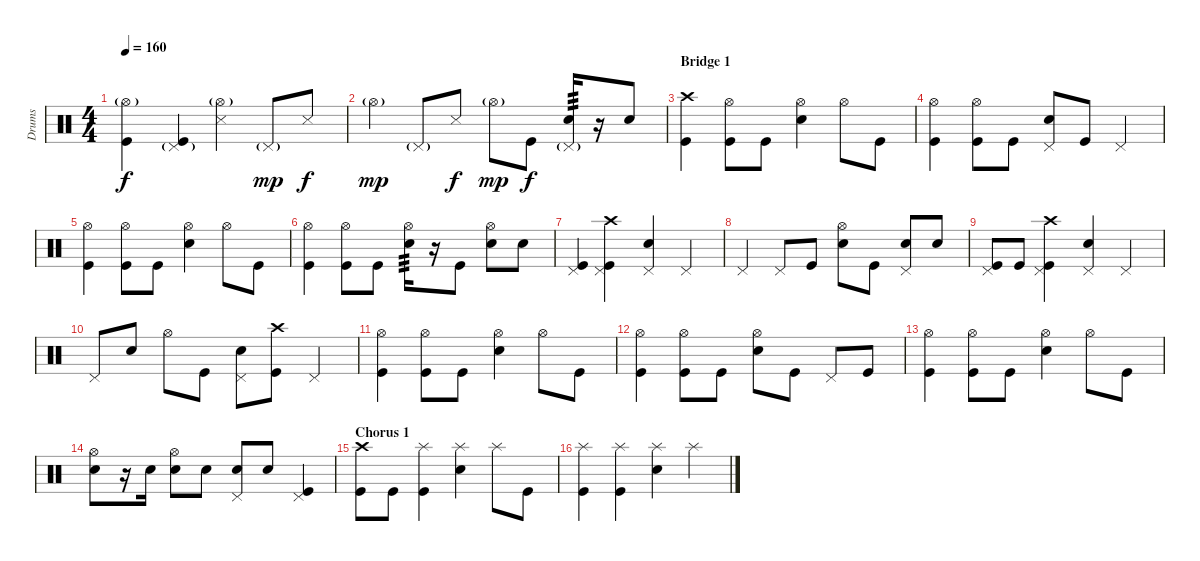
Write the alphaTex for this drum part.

\track ("Drums" "Drums") {instrument percussion}
\staff {score}
\articulation defaults
\ts (4 4)
\tempo 160
\clef neutral
\ks c
("Hi-Hat (open)"{g} "Kick (hit)").4{dy f} ("Pedal Hi-Hat (hit)"{g} "Kick (hit)").4 ("Hi-Hat (open)"{g} "Snare (side stick) 3").4 "Pedal Hi-Hat (hit)"{g}.8{dy mp} "Snare (side stick) 3".8{dy f} |
"Hi-Hat (open)"{g}.4{dy mp} "Pedal Hi-Hat (hit)"{g}.8 "Snare (side stick) 3".8{dy f} "Hi-Hat (open)"{g}.8{dy mp} "Kick (hit)".8{dy f} ("Pedal Hi-Hat (hit)"{g} "Snare (hit) 2").16{tp 3} r.16 "Snare (hit) 2".8 |
\section ("" "Bridge 1")
("Crash high (hit)" "Kick (hit)").4 ("Hi-Hat (open)" "Kick (hit)").8 "Kick (hit)".8 ("Hi-Hat (open)" "Snare (hit) 2").4 "Hi-Hat (open)".8 "Kick (hit)".8 |
("Hi-Hat (open)" "Kick (hit)").4 ("Hi-Hat (open)" "Kick (hit)").8 "Kick (hit)".8 ("Pedal Hi-Hat (hit)" "Snare (hit) 2").8 "Kick (hit)".8 "Pedal Hi-Hat (hit)".4 |
("Hi-Hat (open)" "Kick (hit)").4 ("Hi-Hat (open)" "Kick (hit)").8 "Kick (hit)".8 ("Hi-Hat (open)" "Snare (hit) 2").4 "Hi-Hat (open)".8 "Kick (hit)".8 |
("Hi-Hat (open)" "Kick (hit)").4 ("Hi-Hat (open)" "Kick (hit)").8 "Kick (hit)".8 ("Hi-Hat (open)" "Snare (hit) 2").16{tp 3} r.16 "Kick (hit)".8 ("Hi-Hat (open)" "Snare (hit) 2").8 "Snare (hit) 2".8 |
("Pedal Hi-Hat (hit)" "Kick (hit)").4 ("Pedal Hi-Hat (hit)" "Crash high (hit)" "Kick (hit)").4 ("Pedal Hi-Hat (hit)" "Snare (hit) 2").4 "Pedal Hi-Hat (hit)".4 |
"Pedal Hi-Hat (hit)".4 "Pedal Hi-Hat (hit)".8 "Kick (hit)".8 ("Hi-Hat (open)" "Snare (hit) 2").8 "Kick (hit)".8 ("Pedal Hi-Hat (hit)" "Snare (hit) 2").8 "Snare (hit) 2".8 |
("Pedal Hi-Hat (hit)" "Kick (hit)").8 "Kick (hit)".8 ("Pedal Hi-Hat (hit)" "Crash high (hit)" "Kick (hit)").4 ("Pedal Hi-Hat (hit)" "Snare (hit) 2").4 "Pedal Hi-Hat (hit)".4 |
"Pedal Hi-Hat (hit)".8 "Snare (hit) 2".8 "Hi-Hat (open)".8 "Kick (hit)".8 ("Pedal Hi-Hat (hit)" "Snare (hit) 2").8 ("Crash high (hit)" "Kick (hit)").8 "Pedal Hi-Hat (hit)".4 |
("Hi-Hat (open)" "Kick (hit)").4 ("Hi-Hat (open)" "Kick (hit)").8 "Kick (hit)".8 ("Hi-Hat (open)" "Snare (hit) 2").4 "Hi-Hat (open)".8 "Kick (hit)".8 |
("Hi-Hat (open)" "Kick (hit)").4 ("Hi-Hat (open)" "Kick (hit)").8 "Kick (hit)".8 ("Hi-Hat (open)" "Snare (hit) 2").8 "Kick (hit)".8 "Pedal Hi-Hat (hit)".8 "Kick (hit)".8 |
("Hi-Hat (open)" "Kick (hit)").4 ("Hi-Hat (open)" "Kick (hit)").8 "Kick (hit)".8 ("Hi-Hat (open)" "Snare (hit) 2").4 "Hi-Hat (open)".8 "Kick (hit)".8 |
("Hi-Hat (open)" "Snare (hit) 2").8 r.16 "Snare (hit) 2".16 ("Hi-Hat (open)" "Snare (hit) 2").8 "Snare (hit) 2".8 ("Pedal Hi-Hat (hit)" "Snare (hit) 2").8 "Snare (hit) 2".8 ("Pedal Hi-Hat (hit)" "Kick (hit)").4 |
\section ("" "Chorus 1")
("Crash high (hit)" "Kick (hit)").8 "Kick (hit)".8 ("Splash (hit)" "Kick (hit)").4 ("Splash (hit)" "Snare (hit) 2").4 "Splash (hit)".8 "Kick (hit)".8 |
("Splash (hit)" "Kick (hit)").4 ("Splash (hit)" "Kick (hit)").4 ("Splash (hit)" "Snare (hit) 2").4 "Splash (hit)".4
